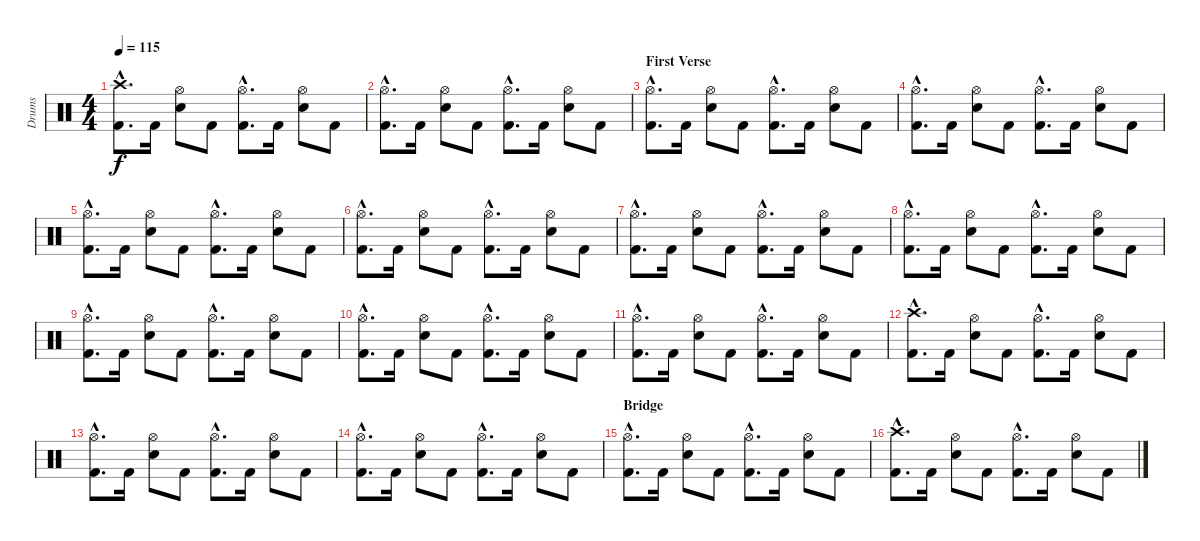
\track ("Drums" "Drums") {instrument percussion}
\staff {score}
\articulation defaults
\ts (4 4)
\tempo 115
\clef neutral
\ks c
("Crash high (hit)"{hac} "Kick (hit) 2"{hac}).8{d dy f} "Kick (hit) 2".16 ("Hi-Hat (open)" "Snare (hit) 2").8 "Kick (hit) 2".8 ("Hi-Hat (open)"{hac} "Kick (hit) 2"{hac}).8{d} "Kick (hit) 2".16 ("Hi-Hat (open)" "Snare (hit) 2").8 "Kick (hit) 2".8 |
("Hi-Hat (open)"{hac} "Kick (hit) 2"{hac}).8{d} "Kick (hit) 2".16 ("Hi-Hat (open)" "Snare (hit) 2").8 "Kick (hit) 2".8 ("Hi-Hat (open)"{hac} "Kick (hit) 2"{hac}).8{d} "Kick (hit) 2".16 ("Hi-Hat (open)" "Snare (hit) 2").8 "Kick (hit) 2".8 |
\section ("" "First Verse")
("Hi-Hat (open)"{hac} "Kick (hit) 2"{hac}).8{d} "Kick (hit) 2".16 ("Hi-Hat (open)" "Snare (hit) 2").8 "Kick (hit) 2".8 ("Hi-Hat (open)"{hac} "Kick (hit) 2"{hac}).8{d} "Kick (hit) 2".16 ("Hi-Hat (open)" "Snare (hit) 2").8 "Kick (hit) 2".8 |
("Hi-Hat (open)"{hac} "Kick (hit) 2"{hac}).8{d} "Kick (hit) 2".16 ("Hi-Hat (open)" "Snare (hit) 2").8 "Kick (hit) 2".8 ("Hi-Hat (open)"{hac} "Kick (hit) 2"{hac}).8{d} "Kick (hit) 2".16 ("Hi-Hat (open)" "Snare (hit) 2").8 "Kick (hit) 2".8 |
("Hi-Hat (open)"{hac} "Kick (hit) 2"{hac}).8{d} "Kick (hit) 2".16 ("Hi-Hat (open)" "Snare (hit) 2").8 "Kick (hit) 2".8 ("Hi-Hat (open)"{hac} "Kick (hit) 2"{hac}).8{d} "Kick (hit) 2".16 ("Hi-Hat (open)" "Snare (hit) 2").8 "Kick (hit) 2".8 |
("Hi-Hat (open)"{hac} "Kick (hit) 2"{hac}).8{d} "Kick (hit) 2".16 ("Hi-Hat (open)" "Snare (hit) 2").8 "Kick (hit) 2".8 ("Hi-Hat (open)"{hac} "Kick (hit) 2"{hac}).8{d} "Kick (hit) 2".16 ("Hi-Hat (open)" "Snare (hit) 2").8 "Kick (hit) 2".8 |
("Hi-Hat (open)"{hac} "Kick (hit) 2"{hac}).8{d} "Kick (hit) 2".16 ("Hi-Hat (open)" "Snare (hit) 2").8 "Kick (hit) 2".8 ("Hi-Hat (open)"{hac} "Kick (hit) 2"{hac}).8{d} "Kick (hit) 2".16 ("Hi-Hat (open)" "Snare (hit) 2").8 "Kick (hit) 2".8 |
("Hi-Hat (open)"{hac} "Kick (hit) 2"{hac}).8{d} "Kick (hit) 2".16 ("Hi-Hat (open)" "Snare (hit) 2").8 "Kick (hit) 2".8 ("Hi-Hat (open)"{hac} "Kick (hit) 2"{hac}).8{d} "Kick (hit) 2".16 ("Hi-Hat (open)" "Snare (hit) 2").8 "Kick (hit) 2".8 |
("Hi-Hat (open)"{hac} "Kick (hit) 2"{hac}).8{d} "Kick (hit) 2".16 ("Hi-Hat (open)" "Snare (hit) 2").8 "Kick (hit) 2".8 ("Hi-Hat (open)"{hac} "Kick (hit) 2"{hac}).8{d} "Kick (hit) 2".16 ("Hi-Hat (open)" "Snare (hit) 2").8 "Kick (hit) 2".8 |
("Hi-Hat (open)"{hac} "Kick (hit) 2"{hac}).8{d} "Kick (hit) 2".16 ("Hi-Hat (open)" "Snare (hit) 2").8 "Kick (hit) 2".8 ("Hi-Hat (open)"{hac} "Kick (hit) 2"{hac}).8{d} "Kick (hit) 2".16 ("Hi-Hat (open)" "Snare (hit) 2").8 "Kick (hit) 2".8 |
("Hi-Hat (open)"{hac} "Kick (hit) 2"{hac}).8{d} "Kick (hit) 2".16 ("Hi-Hat (open)" "Snare (hit) 2").8 "Kick (hit) 2".8 ("Hi-Hat (open)"{hac} "Kick (hit) 2"{hac}).8{d} "Kick (hit) 2".16 ("Hi-Hat (open)" "Snare (hit) 2").8 "Kick (hit) 2".8 |
("Crash high (hit)"{hac} "Kick (hit) 2"{hac}).8{d} "Kick (hit) 2".16 ("Hi-Hat (open)" "Snare (hit) 2").8 "Kick (hit) 2".8 ("Hi-Hat (open)"{hac} "Kick (hit) 2"{hac}).8{d} "Kick (hit) 2".16 ("Hi-Hat (open)" "Snare (hit) 2").8 "Kick (hit) 2".8 |
("Hi-Hat (open)"{hac} "Kick (hit) 2"{hac}).8{d} "Kick (hit) 2".16 ("Hi-Hat (open)" "Snare (hit) 2").8 "Kick (hit) 2".8 ("Hi-Hat (open)"{hac} "Kick (hit) 2"{hac}).8{d} "Kick (hit) 2".16 ("Hi-Hat (open)" "Snare (hit) 2").8 "Kick (hit) 2".8 |
("Hi-Hat (open)"{hac} "Kick (hit) 2"{hac}).8{d} "Kick (hit) 2".16 ("Hi-Hat (open)" "Snare (hit) 2").8 "Kick (hit) 2".8 ("Hi-Hat (open)"{hac} "Kick (hit) 2"{hac}).8{d} "Kick (hit) 2".16 ("Hi-Hat (open)" "Snare (hit) 2").8 "Kick (hit) 2".8 |
\section ("" "Bridge")
("Hi-Hat (open)"{hac} "Kick (hit) 2"{hac}).8{d} "Kick (hit) 2".16 ("Hi-Hat (open)" "Snare (hit) 2").8 "Kick (hit) 2".8 ("Hi-Hat (open)"{hac} "Kick (hit) 2"{hac}).8{d} "Kick (hit) 2".16 ("Hi-Hat (open)" "Snare (hit) 2").8 "Kick (hit) 2".8 |
("Crash high (hit)"{hac} "Kick (hit) 2"{hac}).8{d} "Kick (hit) 2".16 ("Hi-Hat (open)" "Snare (hit) 2").8 "Kick (hit) 2".8 ("Hi-Hat (open)"{hac} "Kick (hit) 2"{hac}).8{d} "Kick (hit) 2".16 ("Hi-Hat (open)" "Snare (hit) 2").8 "Kick (hit) 2".8
